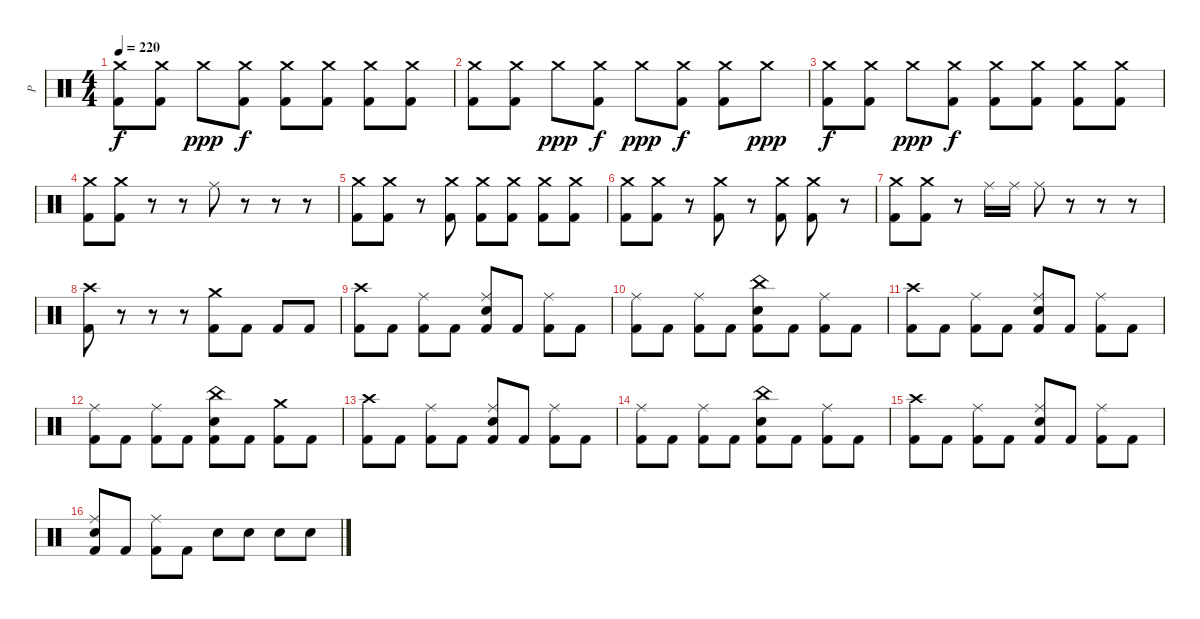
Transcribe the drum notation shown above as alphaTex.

\track ("P" "P") {instrument percussion}
\staff {score}
\articulation defaults
\ts (4 4)
\tempo 220
\clef neutral
\ks c
("Crash medium (hit)" "Kick (hit) 2").8{dy f} ("Crash medium (hit)" "Kick (hit) 2").8 "Crash medium (hit)".8{dy ppp} ("Crash medium (hit)" "Kick (hit) 2").8{dy f} ("Crash medium (hit)" "Kick (hit) 2").8 ("Crash medium (hit)" "Kick (hit) 2").8 ("Crash medium (hit)" "Kick (hit) 2").8 ("Crash medium (hit)" "Kick (hit) 2").8 |
("Crash medium (hit)" "Kick (hit) 2").8 ("Crash medium (hit)" "Kick (hit) 2").8 "Crash medium (hit)".8{dy ppp} ("Crash medium (hit)" "Kick (hit) 2").8{dy f} "Crash medium (hit)".8{dy ppp} ("Crash medium (hit)" "Kick (hit) 2").8{dy f} ("Crash medium (hit)" "Kick (hit) 2").8 "Crash medium (hit)".8{dy ppp} |
("Crash medium (hit)" "Kick (hit) 2").8{dy f} ("Crash medium (hit)" "Kick (hit) 2").8 "Crash medium (hit)".8{dy ppp} ("Crash medium (hit)" "Kick (hit) 2").8{dy f} ("Crash medium (hit)" "Kick (hit) 2").8 ("Crash medium (hit)" "Kick (hit) 2").8 ("Crash medium (hit)" "Kick (hit) 2").8 ("Crash medium (hit)" "Kick (hit) 2").8 |
("Crash medium (hit)" "Kick (hit) 2").8 ("Crash medium (hit)" "Kick (hit) 2").8 r.8 r.8 "Ride (middle)".8 r.8 r.8 r.8 |
("Crash medium (hit)" "Kick (hit) 2").8 ("Crash medium (hit)" "Kick (hit) 2").8 r.8 ("Crash medium (hit)" "Kick (hit) 2").8 ("Crash medium (hit)" "Kick (hit) 2").8 ("Crash medium (hit)" "Kick (hit) 2").8 ("Crash medium (hit)" "Kick (hit) 2").8 ("Crash medium (hit)" "Kick (hit) 2").8 |
("Crash medium (hit)" "Kick (hit) 2").8 ("Crash medium (hit)" "Kick (hit) 2").8 r.8 ("Crash medium (hit)" "Kick (hit) 2").8 r.8 ("Crash medium (hit)" "Kick (hit) 2").8 ("Crash medium (hit)" "Kick (hit) 2").8 r.8 |
("Crash medium (hit)" "Kick (hit) 2").8 ("Crash medium (hit)" "Kick (hit) 2").8 r.8 "Ride (middle)".16 "Ride (middle)".16 "Ride (middle)".8 r.8 r.8 r.8 |
("Crash high (hit)" "Kick (hit) 2").8 r.8 r.8 r.8 ("Crash medium (hit)" "Kick (hit) 2").8 "Kick (hit) 2".8 "Kick (hit) 2".8 "Kick (hit) 2".8 |
("Crash high (hit)" "Kick (hit) 2").8 "Kick (hit) 2".8 ("Ride (middle)" "Kick (hit) 2").8 "Kick (hit) 2".8 ("Ride (middle)" "Electric Snare (hit)" "Kick (hit) 2").8 "Kick (hit) 2".8 ("Ride (middle)" "Kick (hit) 2").8 "Kick (hit) 2".8 |
("Ride (middle)" "Kick (hit) 2").8 "Kick (hit) 2".8 ("Ride (middle)" "Kick (hit) 2").8 "Kick (hit) 2".8 ("China (hit)" "Electric Snare (hit)" "Kick (hit) 2").8 "Kick (hit) 2".8 ("Ride (middle)" "Kick (hit) 2").8 "Kick (hit) 2".8 |
("Crash high (hit)" "Kick (hit) 2").8 "Kick (hit) 2".8 ("Ride (middle)" "Kick (hit) 2").8 "Kick (hit) 2".8 ("Ride (middle)" "Electric Snare (hit)" "Kick (hit) 2").8 "Kick (hit) 2".8 ("Ride (middle)" "Kick (hit) 2").8 "Kick (hit) 2".8 |
("Ride (middle)" "Kick (hit) 2").8 "Kick (hit) 2".8 ("Ride (middle)" "Kick (hit) 2").8 "Kick (hit) 2".8 ("China (hit)" "Electric Snare (hit)" "Kick (hit) 2").8 "Kick (hit) 2".8 ("Crash medium (hit)" "Kick (hit) 2").8 "Kick (hit) 2".8 |
("Crash high (hit)" "Kick (hit) 2").8 "Kick (hit) 2".8 ("Ride (middle)" "Kick (hit) 2").8 "Kick (hit) 2".8 ("Ride (middle)" "Electric Snare (hit)" "Kick (hit) 2").8 "Kick (hit) 2".8 ("Ride (middle)" "Kick (hit) 2").8 "Kick (hit) 2".8 |
("Ride (middle)" "Kick (hit) 2").8 "Kick (hit) 2".8 ("Ride (middle)" "Kick (hit) 2").8 "Kick (hit) 2".8 ("China (hit)" "Electric Snare (hit)" "Kick (hit) 2").8 "Kick (hit) 2".8 ("Ride (middle)" "Kick (hit) 2").8 "Kick (hit) 2".8 |
("Crash high (hit)" "Kick (hit) 2").8 "Kick (hit) 2".8 ("Ride (middle)" "Kick (hit) 2").8 "Kick (hit) 2".8 ("Ride (middle)" "Electric Snare (hit)" "Kick (hit) 2").8 "Kick (hit) 2".8 ("Ride (middle)" "Kick (hit) 2").8 "Kick (hit) 2".8 |
("Ride (middle)" "Electric Snare (hit)" "Kick (hit) 2").8 "Kick (hit) 2".8 ("Ride (middle)" "Kick (hit) 2").8 "Kick (hit) 2".8 "Electric Snare (hit)".8 "Electric Snare (hit)".8 "Electric Snare (hit)".8 "Electric Snare (hit)".8
